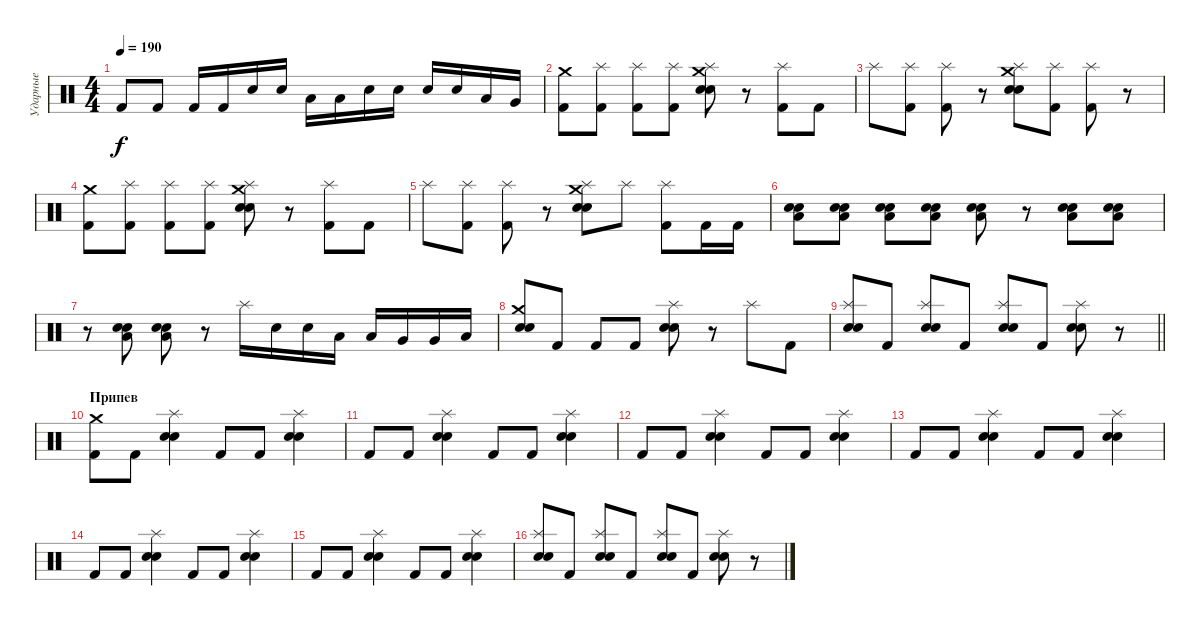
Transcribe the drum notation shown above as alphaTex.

\track ("Ударные" "Ударные") {instrument percussion}
\staff {score}
\articulation defaults
\ts (4 4)
\tempo 190
\clef neutral
\ks c "Kick (hit) 2".8{dy f} "Kick (hit) 2".8 "Kick (hit) 2".16 "Kick (hit) 2".16 "Electric Snare (hit)".16 "Electric Snare (hit)".16 "Low Tom (hit)".16 "Low Tom (hit)".16 "Electric Snare (hit)".16 "Electric Snare (hit)".16 "Electric Snare (hit)".16 "Electric Snare (hit)".16 "Low Tom (hit)".16 "Very Low Tom (hit)".16
|
("Crash medium (hit)" "Kick (hit) 2").8 ("Splash (hit)" "Kick (hit) 2").8 ("Splash (hit)" "Kick (hit) 2").8 ("Splash (hit)" "Kick (hit) 2").8 ("Crash medium (hit)" "Splash (hit)" "Electric Snare (hit)" "Snare (hit) 2").8 r.8 ("Splash (hit)" "Kick (hit) 2").8 "Kick (hit) 2".8 |
"Splash (hit)".8 ("Splash (hit)" "Kick (hit) 2").8 ("Splash (hit)" "Kick (hit) 2").8 r.8 ("Crash medium (hit)" "Splash (hit)" "Electric Snare (hit)" "Snare (hit) 2").8 ("Splash (hit)" "Kick (hit) 2").8 ("Splash (hit)" "Kick (hit) 2").8 r.8 |
("Crash medium (hit)" "Kick (hit) 2").8 ("Splash (hit)" "Kick (hit) 2").8 ("Splash (hit)" "Kick (hit) 2").8 ("Splash (hit)" "Kick (hit) 2").8 ("Crash medium (hit)" "Splash (hit)" "Electric Snare (hit)" "Snare (hit) 2").8 r.8 ("Splash (hit)" "Kick (hit) 2").8 "Kick (hit) 2".8 |
"Splash (hit)".8 ("Splash (hit)" "Kick (hit) 2").8 ("Splash (hit)" "Kick (hit) 2").8 r.8 ("Crash medium (hit)" "Splash (hit)" "Electric Snare (hit)" "Snare (hit) 2").8 "Splash (hit)".8 ("Splash (hit)" "Kick (hit) 2").8 "Kick (hit) 2".16 "Kick (hit) 2".16 |
("Electric Snare (hit)" "Low Tom (hit)" "Snare (hit) 2").8 ("Electric Snare (hit)" "Low Tom (hit)" "Snare (hit) 2").8 ("Electric Snare (hit)" "Low Tom (hit)" "Snare (hit) 2").8 ("Electric Snare (hit)" "Low Tom (hit)" "Snare (hit) 2").8 ("Electric Snare (hit)" "Low Tom (hit)" "Snare (hit) 2").8 r.8 ("Electric Snare (hit)" "Low Tom (hit)" "Snare (hit) 2").8 ("Electric Snare (hit)" "Low Tom (hit)" "Snare (hit) 2").8 |
r.8 ("Electric Snare (hit)" "Low Tom (hit)" "Snare (hit) 2").8 ("Electric Snare (hit)" "Low Tom (hit)" "Snare (hit) 2").8 r.8 "Splash (hit)".16 "Electric Snare (hit)".16 "Electric Snare (hit)".16 "Low Tom (hit)".16 "Low Tom (hit)".16 "Very Low Tom (hit)".16 "Very Low Tom (hit)".16 "Low Floor Tom (hit)".16 |
("Crash medium (hit)" "Electric Snare (hit)" "Snare (hit) 2").8 "Kick (hit) 2".8 "Kick (hit) 2".8 "Kick (hit) 2".8 ("Splash (hit)" "Electric Snare (hit)" "Snare (hit) 2").8 r.8 "Splash (hit)".8 "Kick (hit) 2".8 |
\barLineRight lightlight
("Splash (hit)" "Electric Snare (hit)" "Snare (hit) 2").8 "Kick (hit) 2".8 ("Splash (hit)" "Electric Snare (hit)" "Snare (hit) 2").8 "Kick (hit) 2".8 ("Splash (hit)" "Electric Snare (hit)" "Snare (hit) 2").8 "Kick (hit) 2".8 ("Splash (hit)" "Electric Snare (hit)" "Snare (hit) 2").8 r.8 |
\section ("" "Припев")
("Crash medium (hit)" "Kick (hit) 2").8 "Kick (hit) 2".8 ("Splash (hit)" "Electric Snare (hit)" "Snare (hit) 2").4 "Kick (hit) 2".8 "Kick (hit) 2".8 ("Splash (hit)" "Electric Snare (hit)" "Snare (hit) 2").4 |
"Kick (hit) 2".8 "Kick (hit) 2".8 ("Splash (hit)" "Electric Snare (hit)" "Snare (hit) 2").4 "Kick (hit) 2".8 "Kick (hit) 2".8 ("Splash (hit)" "Electric Snare (hit)" "Snare (hit) 2").4 |
"Kick (hit) 2".8 "Kick (hit) 2".8 ("Splash (hit)" "Electric Snare (hit)" "Snare (hit) 2").4 "Kick (hit) 2".8 "Kick (hit) 2".8 ("Splash (hit)" "Electric Snare (hit)" "Snare (hit) 2").4 |
"Kick (hit) 2".8 "Kick (hit) 2".8 ("Splash (hit)" "Electric Snare (hit)" "Snare (hit) 2").4 "Kick (hit) 2".8 "Kick (hit) 2".8 ("Splash (hit)" "Electric Snare (hit)" "Snare (hit) 2").4 |
"Kick (hit) 2".8 "Kick (hit) 2".8 ("Splash (hit)" "Electric Snare (hit)" "Snare (hit) 2").4 "Kick (hit) 2".8 "Kick (hit) 2".8 ("Splash (hit)" "Electric Snare (hit)" "Snare (hit) 2").4 |
"Kick (hit) 2".8 "Kick (hit) 2".8 ("Splash (hit)" "Electric Snare (hit)" "Snare (hit) 2").4 "Kick (hit) 2".8 "Kick (hit) 2".8 ("Splash (hit)" "Electric Snare (hit)" "Snare (hit) 2").4 |
("Splash (hit)" "Electric Snare (hit)" "Snare (hit) 2").8 "Kick (hit) 2".8 ("Splash (hit)" "Electric Snare (hit)" "Snare (hit) 2").8 "Kick (hit) 2".8 ("Splash (hit)" "Electric Snare (hit)" "Snare (hit) 2").8 "Kick (hit) 2".8 ("Splash (hit)" "Electric Snare (hit)" "Snare (hit) 2").8 r.8
